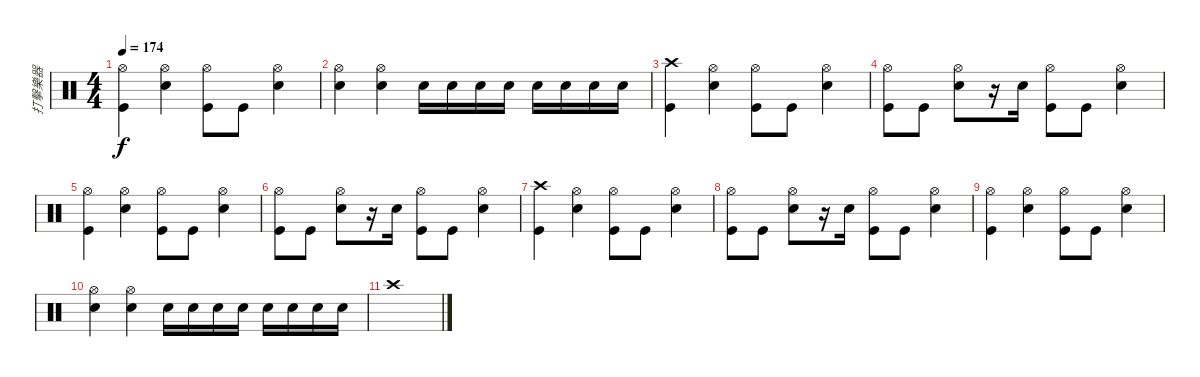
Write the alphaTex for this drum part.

\track ("打擊樂器" "打擊樂器") {instrument percussion}
\staff {score}
\articulation defaults
\ts (4 4)
\tempo 174
\clef neutral
\ks c
("Kick (hit)" "Hi-Hat (open)").4{dy f} ("Hi-Hat (open)" "Snare (hit) 2").4 ("Kick (hit)" "Hi-Hat (open)").8 "Kick (hit)".8 ("Hi-Hat (open)" "Snare (hit) 2").4 |
("Snare (hit) 2" "Hi-Hat (open)").4 ("Snare (hit) 2" "Hi-Hat (open)").4 "Snare (hit) 2".16 "Snare (hit) 2".16 "Snare (hit) 2".16 "Snare (hit) 2".16 "Snare (hit) 2".16 "Snare (hit) 2".16 "Snare (hit) 2".16 "Snare (hit) 2".16 |
("Kick (hit)" "Crash high (hit)").4 ("Hi-Hat (open)" "Snare (hit) 2").4 ("Kick (hit)" "Hi-Hat (open)").8 "Kick (hit)".8 ("Hi-Hat (open)" "Snare (hit) 2").4 |
("Hi-Hat (open)" "Kick (hit)").8 "Kick (hit)".8 ("Hi-Hat (open)" "Snare (hit) 2").8 r.16 "Snare (hit) 2".16 ("Hi-Hat (open)" "Kick (hit)").8 "Kick (hit)".8 ("Hi-Hat (open)" "Snare (hit) 2").4 |
("Kick (hit)" "Hi-Hat (open)").4 ("Hi-Hat (open)" "Snare (hit) 2").4 ("Kick (hit)" "Hi-Hat (open)").8 "Kick (hit)".8 ("Hi-Hat (open)" "Snare (hit) 2").4 |
("Hi-Hat (open)" "Kick (hit)").8 "Kick (hit)".8 ("Hi-Hat (open)" "Snare (hit) 2").8 r.16 "Snare (hit) 2".16 ("Hi-Hat (open)" "Kick (hit)").8 "Kick (hit)".8 ("Hi-Hat (open)" "Snare (hit) 2").4 |
("Kick (hit)" "Crash high (hit)").4 ("Hi-Hat (open)" "Snare (hit) 2").4 ("Kick (hit)" "Hi-Hat (open)").8 "Kick (hit)".8 ("Hi-Hat (open)" "Snare (hit) 2").4 |
("Hi-Hat (open)" "Kick (hit)").8 "Kick (hit)".8 ("Hi-Hat (open)" "Snare (hit) 2").8 r.16 "Snare (hit) 2".16 ("Hi-Hat (open)" "Kick (hit)").8 "Kick (hit)".8 ("Hi-Hat (open)" "Snare (hit) 2").4 |
("Kick (hit)" "Hi-Hat (open)").4 ("Hi-Hat (open)" "Snare (hit) 2").4 ("Kick (hit)" "Hi-Hat (open)").8 "Kick (hit)".8 ("Hi-Hat (open)" "Snare (hit) 2").4 |
("Snare (hit) 2" "Hi-Hat (open)").4 ("Snare (hit) 2" "Hi-Hat (open)").4 "Snare (hit) 2".16 "Snare (hit) 2".16 "Snare (hit) 2".16 "Snare (hit) 2".16 "Snare (hit) 2".16 "Snare (hit) 2".16 "Snare (hit) 2".16 "Snare (hit) 2".16 |
"Crash high (hit)".1
